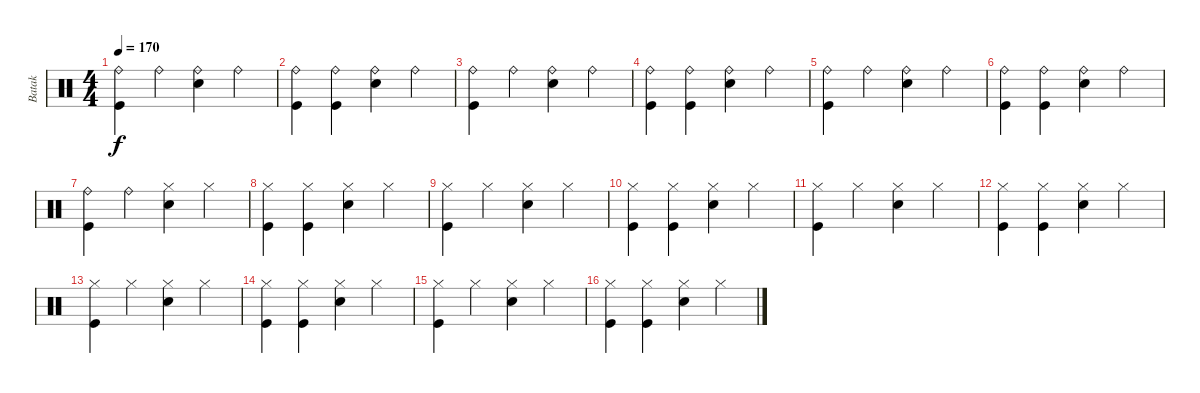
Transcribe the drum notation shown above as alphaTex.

\track ("Batak" "Batak") {instrument percussion}
\staff {score}
\articulation defaults
\ts (4 4)
\tempo 170
\clef neutral
\ks c
("Ride (bell)" "Kick (hit)").4{dy f} "Ride (bell)".4 ("Ride (bell)" "Snare (hit) 2").4 "Ride (bell)".4 |
("Ride (bell)" "Kick (hit)").4 ("Ride (bell)" "Kick (hit)").4 ("Ride (bell)" "Snare (hit) 2").4 "Ride (bell)".4 |
("Ride (bell)" "Kick (hit)").4 "Ride (bell)".4 ("Ride (bell)" "Snare (hit) 2").4 "Ride (bell)".4 |
("Ride (bell)" "Kick (hit)").4 ("Ride (bell)" "Kick (hit)").4 ("Ride (bell)" "Snare (hit) 2").4 "Ride (bell)".4 |
("Ride (bell)" "Kick (hit)").4 "Ride (bell)".4 ("Ride (bell)" "Snare (hit) 2").4 "Ride (bell)".4 |
("Ride (bell)" "Kick (hit)").4 ("Ride (bell)" "Kick (hit)").4 ("Ride (bell)" "Snare (hit) 2").4 "Ride (bell)".4 |
("Ride (bell)" "Kick (hit)").4 "Ride (bell)".4 ("Hi-Hat (closed)" "Snare (hit) 2").4 "Hi-Hat (closed)".4 |
("Hi-Hat (closed)" "Kick (hit)").4 ("Hi-Hat (closed)" "Kick (hit)").4 ("Hi-Hat (closed)" "Snare (hit) 2").4 "Hi-Hat (closed)".4 |
("Hi-Hat (closed)" "Kick (hit)").4 "Hi-Hat (closed)".4 ("Hi-Hat (closed)" "Snare (hit) 2").4 "Hi-Hat (closed)".4 |
("Hi-Hat (closed)" "Kick (hit)").4 ("Hi-Hat (closed)" "Kick (hit)").4 ("Hi-Hat (closed)" "Snare (hit) 2").4 "Hi-Hat (closed)".4 |
("Hi-Hat (closed)" "Kick (hit)").4 "Hi-Hat (closed)".4 ("Hi-Hat (closed)" "Snare (hit) 2").4 "Hi-Hat (closed)".4 |
("Hi-Hat (closed)" "Kick (hit)").4 ("Hi-Hat (closed)" "Kick (hit)").4 ("Hi-Hat (closed)" "Snare (hit) 2").4 "Hi-Hat (closed)".4 |
("Hi-Hat (closed)" "Kick (hit)").4 "Hi-Hat (closed)".4 ("Hi-Hat (closed)" "Snare (hit) 2").4 "Hi-Hat (closed)".4 |
("Hi-Hat (closed)" "Kick (hit)").4 ("Hi-Hat (closed)" "Kick (hit)").4 ("Hi-Hat (closed)" "Snare (hit) 2").4 "Hi-Hat (closed)".4 |
("Hi-Hat (closed)" "Kick (hit)").4 "Hi-Hat (closed)".4 ("Hi-Hat (closed)" "Snare (hit) 2").4 "Hi-Hat (closed)".4 |
("Hi-Hat (closed)" "Kick (hit)").4 ("Hi-Hat (closed)" "Kick (hit)").4 ("Hi-Hat (closed)" "Snare (hit) 2").4 "Hi-Hat (closed)".4
